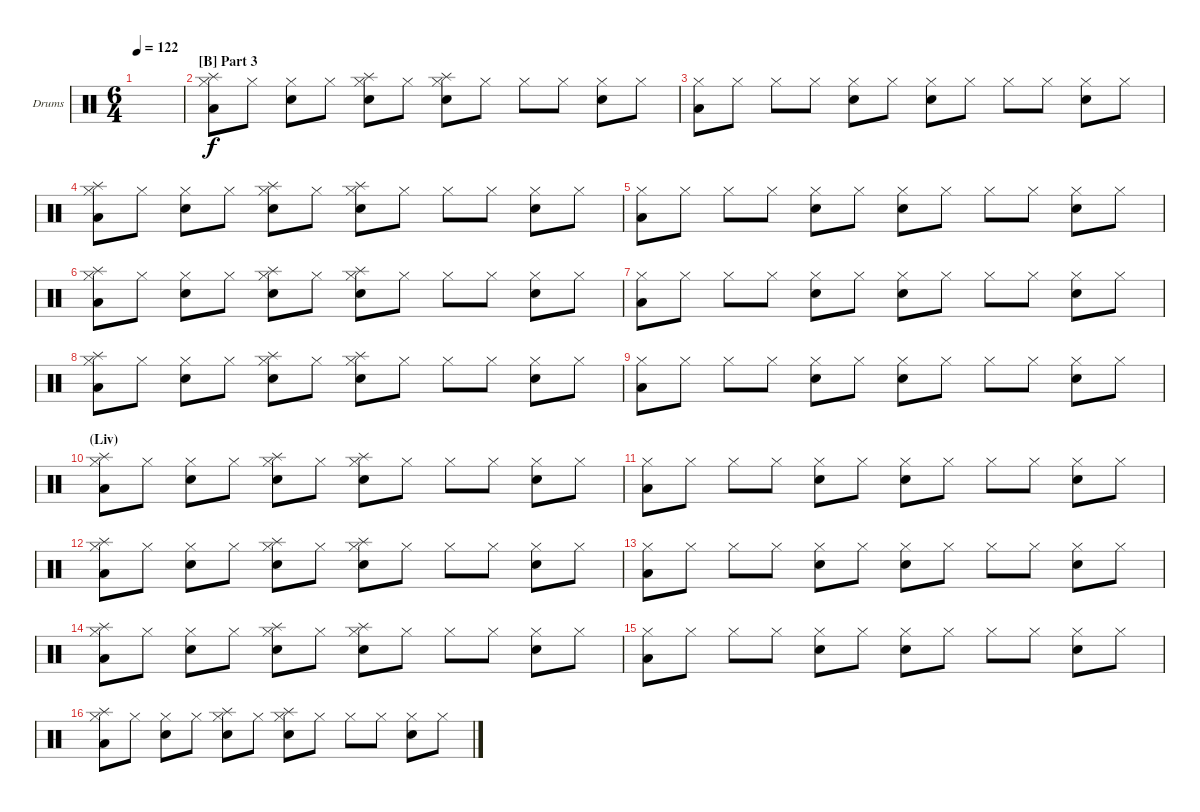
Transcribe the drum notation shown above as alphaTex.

\bracketExtendMode groupsimilarinstruments
\firstSystemTrackNameOrientation horizontal
\otherSystemsTrackNameOrientation horizontal
\track ("Drumkit" "Drums") {instrument percussion}
\staff {score}
\articulation defaults
\ts (6 4)
\tempo 122
\clef neutral
\ks c
|
\section ("B" "Part 3")
("Hi-Hat (closed)" "Splash (hit)" "Low Tom (hit)").8 "Hi-Hat (closed)".8 ("Hi-Hat (closed)" "Snare (hit) 2").8 "Hi-Hat (closed)".8 ("Snare (hit) 2" "Hi-Hat (closed)" "Splash (hit)").8 "Hi-Hat (closed)".8 ("Hi-Hat (closed)" "Snare (hit) 2" "Splash (hit)").8 "Hi-Hat (closed)".8 "Hi-Hat (closed)".8 "Hi-Hat (closed)".8 ("Hi-Hat (closed)" "Snare (hit) 2").8 "Hi-Hat (closed)".8 |
("Hi-Hat (closed)" "Low Tom (hit)").8 "Hi-Hat (closed)".8 "Hi-Hat (closed)".8 "Hi-Hat (closed)".8 ("Snare (hit) 2" "Hi-Hat (closed)").8 "Hi-Hat (closed)".8 ("Hi-Hat (closed)" "Snare (hit) 2").8 "Hi-Hat (closed)".8 "Hi-Hat (closed)".8 "Hi-Hat (closed)".8 ("Hi-Hat (closed)" "Snare (hit) 2").8 "Hi-Hat (closed)".8 |
("Hi-Hat (closed)" "Splash (hit)" "Low Tom (hit)").8 "Hi-Hat (closed)".8 ("Hi-Hat (closed)" "Snare (hit) 2").8 "Hi-Hat (closed)".8 ("Snare (hit) 2" "Hi-Hat (closed)" "Splash (hit)").8 "Hi-Hat (closed)".8 ("Hi-Hat (closed)" "Snare (hit) 2" "Splash (hit)").8 "Hi-Hat (closed)".8 "Hi-Hat (closed)".8 "Hi-Hat (closed)".8 ("Hi-Hat (closed)" "Snare (hit) 2").8 "Hi-Hat (closed)".8 |
("Hi-Hat (closed)" "Low Tom (hit)").8 "Hi-Hat (closed)".8 "Hi-Hat (closed)".8 "Hi-Hat (closed)".8 ("Snare (hit) 2" "Hi-Hat (closed)").8 "Hi-Hat (closed)".8 ("Hi-Hat (closed)" "Snare (hit) 2").8 "Hi-Hat (closed)".8 "Hi-Hat (closed)".8 "Hi-Hat (closed)".8 ("Hi-Hat (closed)" "Snare (hit) 2").8 "Hi-Hat (closed)".8 |
("Hi-Hat (closed)" "Splash (hit)" "Low Tom (hit)").8 "Hi-Hat (closed)".8 ("Hi-Hat (closed)" "Snare (hit) 2").8 "Hi-Hat (closed)".8 ("Snare (hit) 2" "Hi-Hat (closed)" "Splash (hit)").8 "Hi-Hat (closed)".8 ("Hi-Hat (closed)" "Snare (hit) 2" "Splash (hit)").8 "Hi-Hat (closed)".8 "Hi-Hat (closed)".8 "Hi-Hat (closed)".8 ("Hi-Hat (closed)" "Snare (hit) 2").8 "Hi-Hat (closed)".8 |
("Hi-Hat (closed)" "Low Tom (hit)").8 "Hi-Hat (closed)".8 "Hi-Hat (closed)".8 "Hi-Hat (closed)".8 ("Snare (hit) 2" "Hi-Hat (closed)").8 "Hi-Hat (closed)".8 ("Hi-Hat (closed)" "Snare (hit) 2").8 "Hi-Hat (closed)".8 "Hi-Hat (closed)".8 "Hi-Hat (closed)".8 ("Hi-Hat (closed)" "Snare (hit) 2").8 "Hi-Hat (closed)".8 |
("Hi-Hat (closed)" "Splash (hit)" "Low Tom (hit)").8 "Hi-Hat (closed)".8 ("Hi-Hat (closed)" "Snare (hit) 2").8 "Hi-Hat (closed)".8 ("Snare (hit) 2" "Hi-Hat (closed)" "Splash (hit)").8 "Hi-Hat (closed)".8 ("Hi-Hat (closed)" "Snare (hit) 2" "Splash (hit)").8 "Hi-Hat (closed)".8 "Hi-Hat (closed)".8 "Hi-Hat (closed)".8 ("Hi-Hat (closed)" "Snare (hit) 2").8 "Hi-Hat (closed)".8 |
("Hi-Hat (closed)" "Low Tom (hit)").8 "Hi-Hat (closed)".8 "Hi-Hat (closed)".8 "Hi-Hat (closed)".8 ("Snare (hit) 2" "Hi-Hat (closed)").8 "Hi-Hat (closed)".8 ("Hi-Hat (closed)" "Snare (hit) 2").8 "Hi-Hat (closed)".8 "Hi-Hat (closed)".8 "Hi-Hat (closed)".8 ("Hi-Hat (closed)" "Snare (hit) 2").8 "Hi-Hat (closed)".8 |
\section ("" "(Liv)")
("Hi-Hat (closed)" "Splash (hit)" "Low Tom (hit)").8 "Hi-Hat (closed)".8 ("Hi-Hat (closed)" "Snare (hit) 2").8 "Hi-Hat (closed)".8 ("Snare (hit) 2" "Hi-Hat (closed)" "Splash (hit)").8 "Hi-Hat (closed)".8 ("Hi-Hat (closed)" "Snare (hit) 2" "Splash (hit)").8 "Hi-Hat (closed)".8 "Hi-Hat (closed)".8 "Hi-Hat (closed)".8 ("Hi-Hat (closed)" "Snare (hit) 2").8 "Hi-Hat (closed)".8 |
("Hi-Hat (closed)" "Low Tom (hit)").8 "Hi-Hat (closed)".8 "Hi-Hat (closed)".8 "Hi-Hat (closed)".8 ("Snare (hit) 2" "Hi-Hat (closed)").8 "Hi-Hat (closed)".8 ("Hi-Hat (closed)" "Snare (hit) 2").8 "Hi-Hat (closed)".8 "Hi-Hat (closed)".8 "Hi-Hat (closed)".8 ("Hi-Hat (closed)" "Snare (hit) 2").8 "Hi-Hat (closed)".8 |
("Hi-Hat (closed)" "Splash (hit)" "Low Tom (hit)").8 "Hi-Hat (closed)".8 ("Hi-Hat (closed)" "Snare (hit) 2").8 "Hi-Hat (closed)".8 ("Snare (hit) 2" "Hi-Hat (closed)" "Splash (hit)").8 "Hi-Hat (closed)".8 ("Hi-Hat (closed)" "Snare (hit) 2" "Splash (hit)").8 "Hi-Hat (closed)".8 "Hi-Hat (closed)".8 "Hi-Hat (closed)".8 ("Hi-Hat (closed)" "Snare (hit) 2").8 "Hi-Hat (closed)".8 |
("Hi-Hat (closed)" "Low Tom (hit)").8 "Hi-Hat (closed)".8 "Hi-Hat (closed)".8 "Hi-Hat (closed)".8 ("Snare (hit) 2" "Hi-Hat (closed)").8 "Hi-Hat (closed)".8 ("Hi-Hat (closed)" "Snare (hit) 2").8 "Hi-Hat (closed)".8 "Hi-Hat (closed)".8 "Hi-Hat (closed)".8 ("Hi-Hat (closed)" "Snare (hit) 2").8 "Hi-Hat (closed)".8 |
("Hi-Hat (closed)" "Splash (hit)" "Low Tom (hit)").8 "Hi-Hat (closed)".8 ("Hi-Hat (closed)" "Snare (hit) 2").8 "Hi-Hat (closed)".8 ("Snare (hit) 2" "Hi-Hat (closed)" "Splash (hit)").8 "Hi-Hat (closed)".8 ("Hi-Hat (closed)" "Snare (hit) 2" "Splash (hit)").8 "Hi-Hat (closed)".8 "Hi-Hat (closed)".8 "Hi-Hat (closed)".8 ("Hi-Hat (closed)" "Snare (hit) 2").8 "Hi-Hat (closed)".8 |
("Hi-Hat (closed)" "Low Tom (hit)").8 "Hi-Hat (closed)".8 "Hi-Hat (closed)".8 "Hi-Hat (closed)".8 ("Snare (hit) 2" "Hi-Hat (closed)").8 "Hi-Hat (closed)".8 ("Hi-Hat (closed)" "Snare (hit) 2").8 "Hi-Hat (closed)".8 "Hi-Hat (closed)".8 "Hi-Hat (closed)".8 ("Hi-Hat (closed)" "Snare (hit) 2").8 "Hi-Hat (closed)".8 |
("Hi-Hat (closed)" "Splash (hit)" "Low Tom (hit)").8 "Hi-Hat (closed)".8 ("Hi-Hat (closed)" "Snare (hit) 2").8 "Hi-Hat (closed)".8 ("Snare (hit) 2" "Hi-Hat (closed)" "Splash (hit)").8 "Hi-Hat (closed)".8 ("Hi-Hat (closed)" "Snare (hit) 2" "Splash (hit)").8 "Hi-Hat (closed)".8 "Hi-Hat (closed)".8 "Hi-Hat (closed)".8 ("Hi-Hat (closed)" "Snare (hit) 2").8 "Hi-Hat (closed)".8
